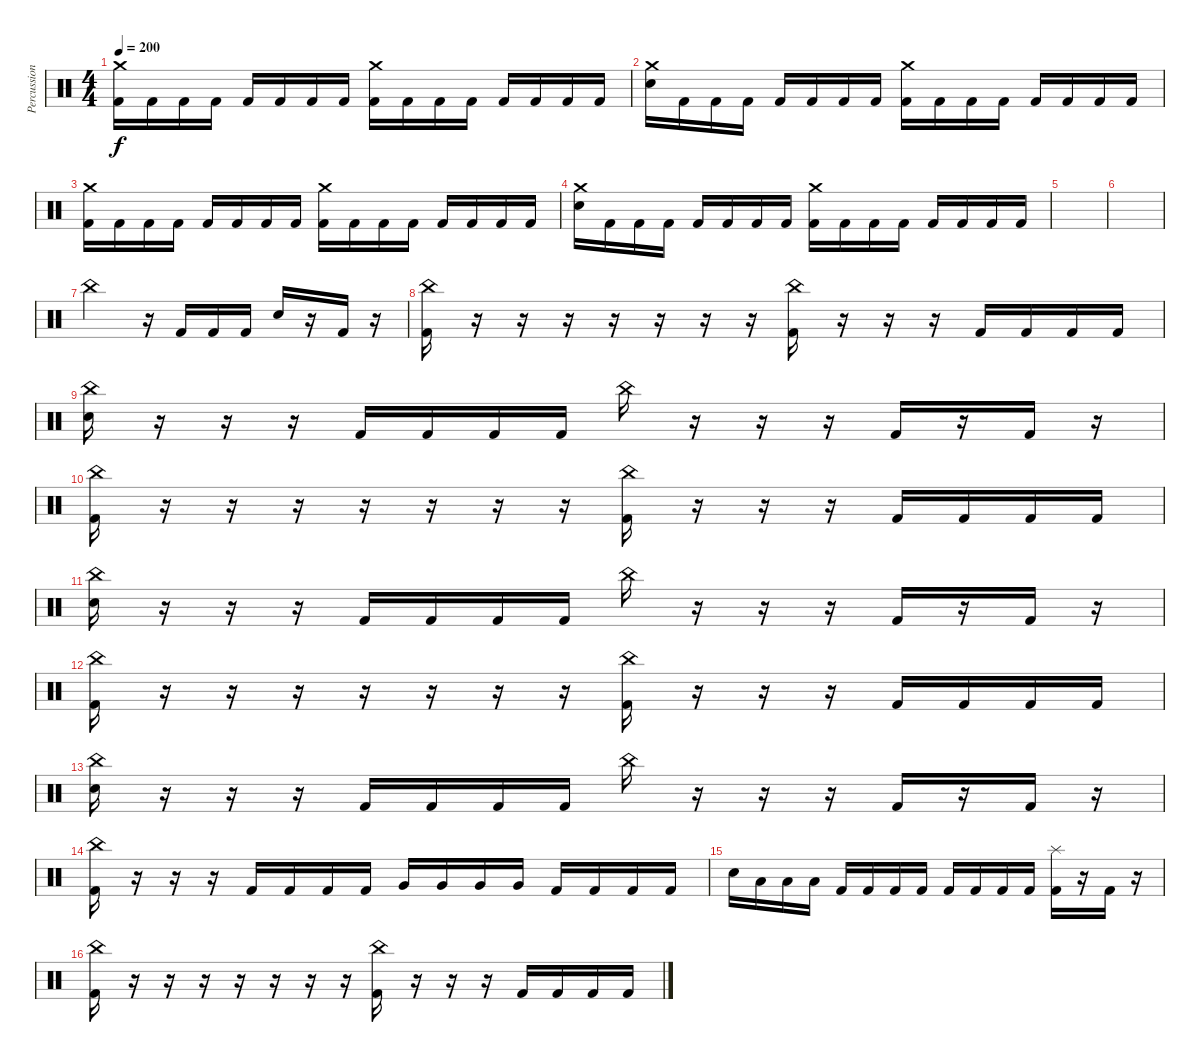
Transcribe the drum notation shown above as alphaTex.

\track ("Percussion" "Percussion") {instrument percussion}
\staff {score}
\articulation defaults
\ts (4 4)
\tempo 200
\clef neutral
\ks c
("Crash medium (hit)" "Kick (hit) 2").16{dy f} "Kick (hit) 2".16 "Kick (hit) 2".16 "Kick (hit) 2".16 "Kick (hit) 2".16 "Kick (hit) 2".16 "Kick (hit) 2".16 "Kick (hit) 2".16 ("Crash medium (hit)" "Kick (hit) 2").16 "Kick (hit) 2".16 "Kick (hit) 2".16 "Kick (hit) 2".16 "Kick (hit) 2".16 "Kick (hit) 2".16 "Kick (hit) 2".16 "Kick (hit) 2".16 |
("Crash medium (hit)" "Electric Snare (hit)").16 "Kick (hit) 2".16 "Kick (hit) 2".16 "Kick (hit) 2".16 "Kick (hit) 2".16 "Kick (hit) 2".16 "Kick (hit) 2".16 "Kick (hit) 2".16 ("Crash medium (hit)" "Kick (hit) 2").16 "Kick (hit) 2".16 "Kick (hit) 2".16 "Kick (hit) 2".16 "Kick (hit) 2".16 "Kick (hit) 2".16 "Kick (hit) 2".16 "Kick (hit) 2".16 |
("Crash medium (hit)" "Kick (hit) 2").16 "Kick (hit) 2".16 "Kick (hit) 2".16 "Kick (hit) 2".16 "Kick (hit) 2".16 "Kick (hit) 2".16 "Kick (hit) 2".16 "Kick (hit) 2".16 ("Crash medium (hit)" "Kick (hit) 2").16 "Kick (hit) 2".16 "Kick (hit) 2".16 "Kick (hit) 2".16 "Kick (hit) 2".16 "Kick (hit) 2".16 "Kick (hit) 2".16 "Kick (hit) 2".16 |
("Crash medium (hit)" "Electric Snare (hit)").16 "Kick (hit) 2".16 "Kick (hit) 2".16 "Kick (hit) 2".16 "Kick (hit) 2".16 "Kick (hit) 2".16 "Kick (hit) 2".16 "Kick (hit) 2".16 ("Crash medium (hit)" "Kick (hit) 2").16 "Kick (hit) 2".16 "Kick (hit) 2".16 "Kick (hit) 2".16 "Kick (hit) 2".16 "Kick (hit) 2".16 "Kick (hit) 2".16 "Kick (hit) 2".16 |
|
|
"China (hit)".2 r.16 "Kick (hit) 2".16 "Kick (hit) 2".16 "Kick (hit) 2".16 "Electric Snare (hit)".16 r.16 "Kick (hit) 2".16 r.16 |
("China (hit)" "Kick (hit) 2").16 r.16 r.16 r.16 r.16 r.16 r.16 r.16 ("China (hit)" "Kick (hit) 2").16 r.16 r.16 r.16 "Kick (hit) 2".16 "Kick (hit) 2".16 "Kick (hit) 2".16 "Kick (hit) 2".16 |
("China (hit)" "Electric Snare (hit)").16 r.16 r.16 r.16 "Kick (hit) 2".16 "Kick (hit) 2".16 "Kick (hit) 2".16 "Kick (hit) 2".16 "China (hit)".16 r.16 r.16 r.16 "Kick (hit) 2".16 r.16 "Kick (hit) 2".16 r.16 |
("China (hit)" "Kick (hit) 2").16 r.16 r.16 r.16 r.16 r.16 r.16 r.16 ("China (hit)" "Kick (hit) 2").16 r.16 r.16 r.16 "Kick (hit) 2".16 "Kick (hit) 2".16 "Kick (hit) 2".16 "Kick (hit) 2".16 |
("China (hit)" "Electric Snare (hit)").16 r.16 r.16 r.16 "Kick (hit) 2".16 "Kick (hit) 2".16 "Kick (hit) 2".16 "Kick (hit) 2".16 "China (hit)".16 r.16 r.16 r.16 "Kick (hit) 2".16 r.16 "Kick (hit) 2".16 r.16 |
("China (hit)" "Kick (hit) 2").16 r.16 r.16 r.16 r.16 r.16 r.16 r.16 ("China (hit)" "Kick (hit) 2").16 r.16 r.16 r.16 "Kick (hit) 2".16 "Kick (hit) 2".16 "Kick (hit) 2".16 "Kick (hit) 2".16 |
("China (hit)" "Electric Snare (hit)").16 r.16 r.16 r.16 "Kick (hit) 2".16 "Kick (hit) 2".16 "Kick (hit) 2".16 "Kick (hit) 2".16 "China (hit)".16 r.16 r.16 r.16 "Kick (hit) 2".16 r.16 "Kick (hit) 2".16 r.16 |
("China (hit)" "Kick (hit) 2").16 r.16 r.16 r.16 "Kick (hit) 2".16 "Kick (hit) 2".16 "Kick (hit) 2".16 "Kick (hit) 2".16 "Very Low Tom (hit)".16 "Very Low Tom (hit)".16 "Very Low Tom (hit)".16 "Very Low Tom (hit)".16 "Kick (hit) 2".16 "Kick (hit) 2".16 "Kick (hit) 2".16 "Kick (hit) 2".16 |
"Electric Snare (hit)".16 "Low Tom (hit)".16 "Low Tom (hit)".16 "Low Tom (hit)".16 "Kick (hit) 2".16 "Kick (hit) 2".16 "Kick (hit) 2".16 "Kick (hit) 2".16 "Kick (hit) 2".16 "Kick (hit) 2".16 "Kick (hit) 2".16 "Kick (hit) 2".16 ("Splash (hit)" "Kick (hit) 2").16 r.16 "Kick (hit) 2".16 r.16 |
("China (hit)" "Kick (hit) 2").16 r.16 r.16 r.16 r.16 r.16 r.16 r.16 ("China (hit)" "Kick (hit) 2").16 r.16 r.16 r.16 "Kick (hit) 2".16 "Kick (hit) 2".16 "Kick (hit) 2".16 "Kick (hit) 2".16
